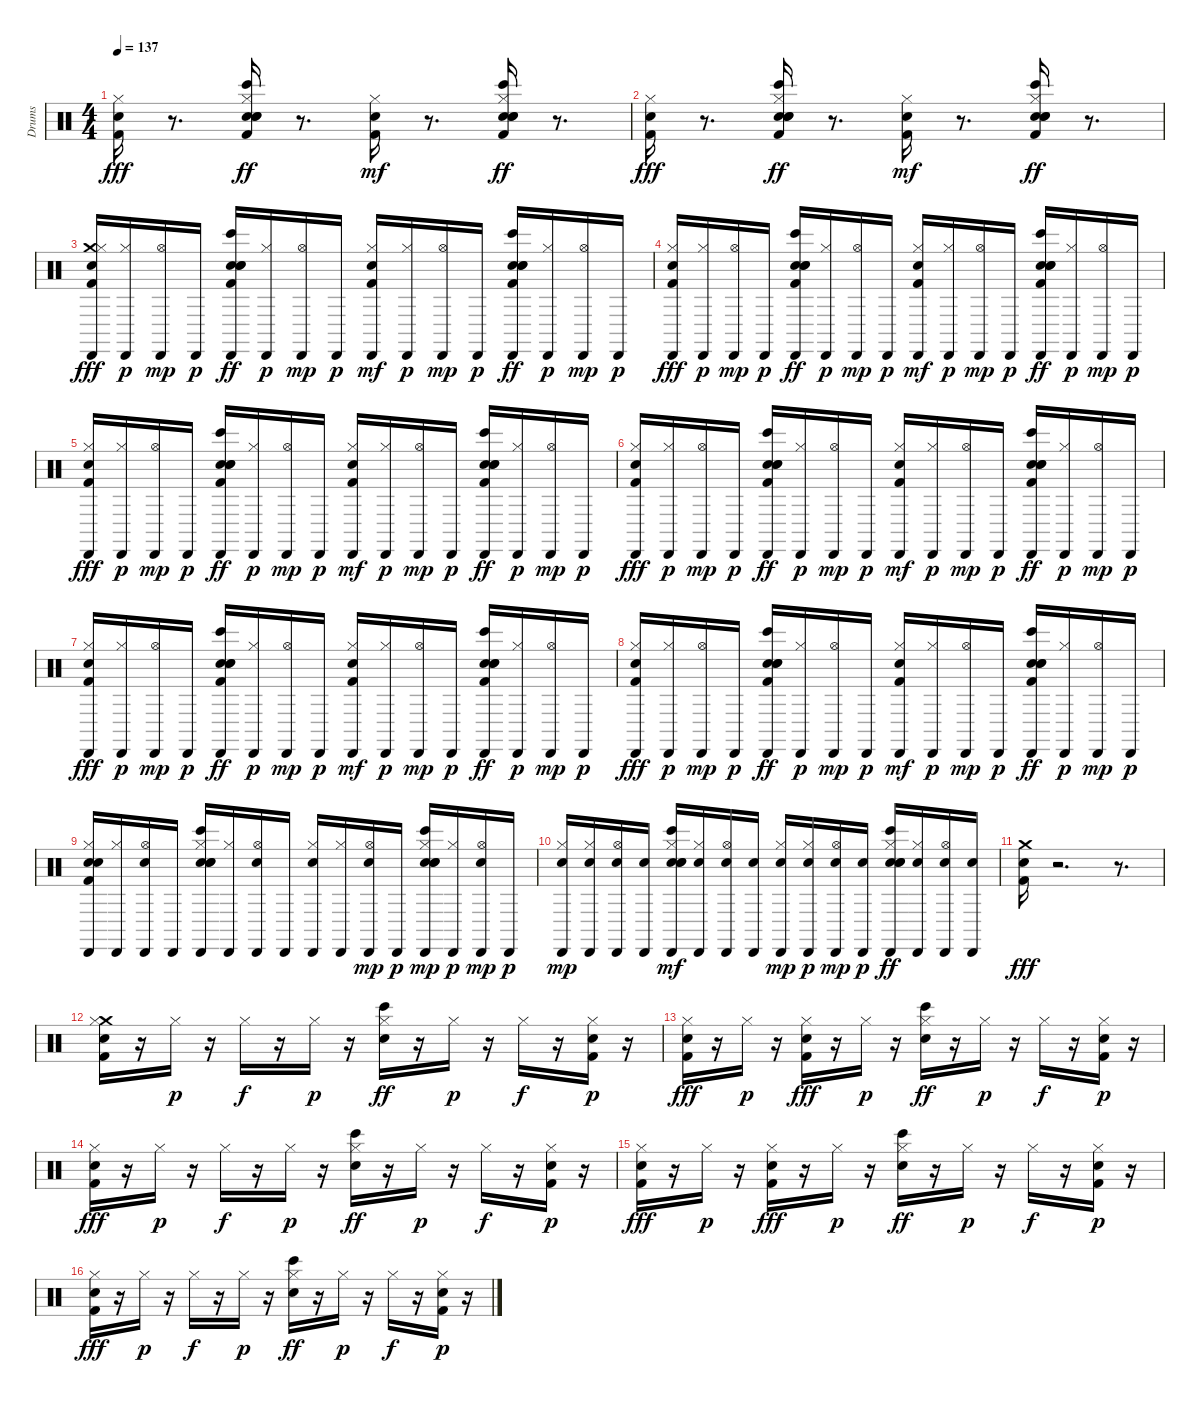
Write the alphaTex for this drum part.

\track ("Drums" "Drums") {instrument percussion}
\staff {score}
\articulation defaults
\ts (4 4)
\tempo 137
\clef neutral
\ks c
("Kick (hit) 2" "Snare (hit)" "Hi-Hat (closed)").16{dy fff} r.8{d} ("Snare (hit)" "Kick (hit) 2" "Bongo High (hit)" "Snare (hit) 2" "Hand Clap (hit)" "Hi-Hat (closed)").16{dy ff} r.8{d} ("Snare (hit)" "Kick (hit) 2" "Hi-Hat (closed)").16{dy mf} r.8{d} ("Snare (hit)" "Kick (hit) 2" "Bongo High (hit)" "Snare (hit) 2" "Hand Clap (hit)" "Hi-Hat (closed)").16{dy ff} r.8{d} |
("Kick (hit) 2" "Snare (hit)" "Hi-Hat (closed)").16{dy fff} r.8{d} ("Snare (hit)" "Kick (hit) 2" "Bongo High (hit)" "Snare (hit) 2" "Hand Clap (hit)" "Hi-Hat (closed)").16{dy ff} r.8{d} ("Snare (hit)" "Kick (hit) 2" "Hi-Hat (closed)").16{dy mf} r.8{d} ("Snare (hit)" "Kick (hit) 2" "Bongo High (hit)" "Snare (hit) 2" "Hand Clap (hit)" "Hi-Hat (closed)").16{dy ff} r.8{d} |
("Crash medium (hit)" "Cabasa (hit)" "Kick (hit) 2" "Snare (hit)" "Hi-Hat (closed)").16{dy fff} ("Cabasa (hit)" "Hi-Hat (closed)").16{dy p} ("Cabasa (hit)" "Hi-Hat (open)").16{dy mp} "Cabasa (hit)".16{dy p} ("Cabasa (hit)" "Snare (hit)" "Kick (hit) 2" "Bongo High (hit)" "Snare (hit) 2" "Hand Clap (hit)").16{dy ff} ("Cabasa (hit)" "Hi-Hat (closed)").16{dy p} ("Cabasa (hit)" "Hi-Hat (open)").16{dy mp} "Cabasa (hit)".16{dy p} ("Cabasa (hit)" "Snare (hit)" "Kick (hit) 2" "Hi-Hat (closed)").16{dy mf} ("Cabasa (hit)" "Hi-Hat (closed)").16{dy p} ("Cabasa (hit)" "Hi-Hat (open)").16{dy mp} "Cabasa (hit)".16{dy p} ("Cabasa (hit)" "Snare (hit)" "Kick (hit) 2" "Bongo High (hit)" "Snare (hit) 2" "Hand Clap (hit)").16{dy ff} ("Cabasa (hit)" "Hi-Hat (closed)").16{dy p} ("Cabasa (hit)" "Hi-Hat (open)").16{dy mp} "Cabasa (hit)".16{dy p} |
("Cabasa (hit)" "Kick (hit) 2" "Snare (hit)" "Hi-Hat (closed)").16{dy fff} ("Cabasa (hit)" "Hi-Hat (closed)").16{dy p} ("Cabasa (hit)" "Hi-Hat (open)").16{dy mp} "Cabasa (hit)".16{dy p} ("Cabasa (hit)" "Snare (hit)" "Kick (hit) 2" "Bongo High (hit)" "Snare (hit) 2" "Hand Clap (hit)").16{dy ff} ("Cabasa (hit)" "Hi-Hat (closed)").16{dy p} ("Cabasa (hit)" "Hi-Hat (open)").16{dy mp} "Cabasa (hit)".16{dy p} ("Cabasa (hit)" "Snare (hit)" "Kick (hit) 2" "Hi-Hat (closed)").16{dy mf} ("Cabasa (hit)" "Hi-Hat (closed)").16{dy p} ("Cabasa (hit)" "Hi-Hat (open)").16{dy mp} "Cabasa (hit)".16{dy p} ("Cabasa (hit)" "Snare (hit)" "Kick (hit) 2" "Bongo High (hit)" "Snare (hit) 2" "Hand Clap (hit)").16{dy ff} ("Cabasa (hit)" "Hi-Hat (closed)").16{dy p} ("Cabasa (hit)" "Hi-Hat (open)").16{dy mp} "Cabasa (hit)".16{dy p} |
("Cabasa (hit)" "Kick (hit) 2" "Snare (hit)" "Hi-Hat (closed)").16{dy fff} ("Cabasa (hit)" "Hi-Hat (closed)").16{dy p} ("Cabasa (hit)" "Hi-Hat (open)").16{dy mp} "Cabasa (hit)".16{dy p} ("Cabasa (hit)" "Snare (hit)" "Kick (hit) 2" "Bongo High (hit)" "Snare (hit) 2" "Hand Clap (hit)").16{dy ff} ("Cabasa (hit)" "Hi-Hat (closed)").16{dy p} ("Cabasa (hit)" "Hi-Hat (open)").16{dy mp} "Cabasa (hit)".16{dy p} ("Cabasa (hit)" "Snare (hit)" "Kick (hit) 2" "Hi-Hat (closed)").16{dy mf} ("Cabasa (hit)" "Hi-Hat (closed)").16{dy p} ("Cabasa (hit)" "Hi-Hat (open)").16{dy mp} "Cabasa (hit)".16{dy p} ("Cabasa (hit)" "Snare (hit)" "Kick (hit) 2" "Bongo High (hit)" "Snare (hit) 2" "Hand Clap (hit)").16{dy ff} ("Cabasa (hit)" "Hi-Hat (closed)").16{dy p} ("Cabasa (hit)" "Hi-Hat (open)").16{dy mp} "Cabasa (hit)".16{dy p} |
("Cabasa (hit)" "Kick (hit) 2" "Snare (hit)" "Hi-Hat (closed)").16{dy fff} ("Cabasa (hit)" "Hi-Hat (closed)").16{dy p} ("Cabasa (hit)" "Hi-Hat (open)").16{dy mp} "Cabasa (hit)".16{dy p} ("Cabasa (hit)" "Snare (hit)" "Kick (hit) 2" "Bongo High (hit)" "Snare (hit) 2" "Hand Clap (hit)").16{dy ff} ("Cabasa (hit)" "Hi-Hat (closed)").16{dy p} ("Cabasa (hit)" "Hi-Hat (open)").16{dy mp} "Cabasa (hit)".16{dy p} ("Cabasa (hit)" "Snare (hit)" "Kick (hit) 2" "Hi-Hat (closed)").16{dy mf} ("Cabasa (hit)" "Hi-Hat (closed)").16{dy p} ("Cabasa (hit)" "Hi-Hat (open)").16{dy mp} "Cabasa (hit)".16{dy p} ("Cabasa (hit)" "Snare (hit)" "Kick (hit) 2" "Bongo High (hit)" "Snare (hit) 2" "Hand Clap (hit)").16{dy ff} ("Cabasa (hit)" "Hi-Hat (closed)").16{dy p} ("Cabasa (hit)" "Hi-Hat (open)").16{dy mp} "Cabasa (hit)".16{dy p} |
("Cabasa (hit)" "Kick (hit) 2" "Snare (hit)" "Hi-Hat (closed)").16{dy fff} ("Cabasa (hit)" "Hi-Hat (closed)").16{dy p} ("Cabasa (hit)" "Hi-Hat (open)").16{dy mp} "Cabasa (hit)".16{dy p} ("Cabasa (hit)" "Snare (hit)" "Kick (hit) 2" "Bongo High (hit)" "Snare (hit) 2" "Hand Clap (hit)").16{dy ff} ("Cabasa (hit)" "Hi-Hat (closed)").16{dy p} ("Cabasa (hit)" "Hi-Hat (open)").16{dy mp} "Cabasa (hit)".16{dy p} ("Cabasa (hit)" "Snare (hit)" "Kick (hit) 2" "Hi-Hat (closed)").16{dy mf} ("Cabasa (hit)" "Hi-Hat (closed)").16{dy p} ("Cabasa (hit)" "Hi-Hat (open)").16{dy mp} "Cabasa (hit)".16{dy p} ("Cabasa (hit)" "Snare (hit)" "Kick (hit) 2" "Bongo High (hit)" "Snare (hit) 2" "Hand Clap (hit)").16{dy ff} ("Cabasa (hit)" "Hi-Hat (closed)").16{dy p} ("Cabasa (hit)" "Hi-Hat (open)").16{dy mp} "Cabasa (hit)".16{dy p} |
("Cabasa (hit)" "Kick (hit) 2" "Snare (hit)" "Hi-Hat (closed)").16{dy fff} ("Cabasa (hit)" "Hi-Hat (closed)").16{dy p} ("Cabasa (hit)" "Hi-Hat (open)").16{dy mp} "Cabasa (hit)".16{dy p} ("Cabasa (hit)" "Snare (hit)" "Kick (hit) 2" "Bongo High (hit)" "Snare (hit) 2" "Hand Clap (hit)").16{dy ff} ("Cabasa (hit)" "Hi-Hat (closed)").16{dy p} ("Cabasa (hit)" "Hi-Hat (open)").16{dy mp} "Cabasa (hit)".16{dy p} ("Cabasa (hit)" "Snare (hit)" "Kick (hit) 2" "Hi-Hat (closed)").16{dy mf} ("Cabasa (hit)" "Hi-Hat (closed)").16{dy p} ("Cabasa (hit)" "Hi-Hat (open)").16{dy mp} "Cabasa (hit)".16{dy p} ("Cabasa (hit)" "Snare (hit)" "Kick (hit) 2" "Bongo High (hit)" "Snare (hit) 2" "Hand Clap (hit)").16{dy ff} ("Cabasa (hit)" "Hi-Hat (closed)").16{dy p} ("Cabasa (hit)" "Hi-Hat (open)").16{dy mp} "Cabasa (hit)".16{dy p} |
("Cabasa (hit)" "Kick (hit) 2" "Snare (hit)" "Hi-Hat (closed)" "Electric Snare (hit)").16 ("Cabasa (hit)" "Hi-Hat (closed)").16 ("Cabasa (hit)" "Hi-Hat (open)" "Electric Snare (hit)").16 "Cabasa (hit)".16 ("Cabasa (hit)" "Bongo High (hit)" "Snare (hit) 2" "Hand Clap (hit)" "Hi-Hat (closed)" "Electric Snare (hit)").16 ("Cabasa (hit)" "Hi-Hat (closed)").16 ("Cabasa (hit)" "Hi-Hat (open)" "Electric Snare (hit)").16 "Cabasa (hit)".16 ("Cabasa (hit)" "Hi-Hat (closed)" "Electric Snare (hit)").16 ("Cabasa (hit)" "Hi-Hat (closed)").16 ("Cabasa (hit)" "Hi-Hat (open)" "Electric Snare (hit)").16{dy mp} "Cabasa (hit)".16{dy p} ("Cabasa (hit)" "Bongo High (hit)" "Snare (hit) 2" "Hand Clap (hit)" "Hi-Hat (closed)" "Electric Snare (hit)").16{dy mp} ("Cabasa (hit)" "Hi-Hat (closed)").16{dy p} ("Cabasa (hit)" "Hi-Hat (open)" "Electric Snare (hit)").16{dy mp} "Cabasa (hit)".16{dy p} |
("Cabasa (hit)" "Hi-Hat (closed)" "Electric Snare (hit)").16{dy mp} ("Cabasa (hit)" "Hi-Hat (closed)" "Electric Snare (hit)").16 ("Cabasa (hit)" "Hi-Hat (open)" "Electric Snare (hit)").16 ("Cabasa (hit)" "Electric Snare (hit)").16 ("Cabasa (hit)" "Bongo High (hit)" "Snare (hit) 2" "Hand Clap (hit)" "Hi-Hat (closed)" "Electric Snare (hit)").16{dy mf} ("Cabasa (hit)" "Hi-Hat (closed)" "Electric Snare (hit)").16 ("Cabasa (hit)" "Hi-Hat (open)" "Electric Snare (hit)").16 ("Cabasa (hit)" "Electric Snare (hit)").16 ("Cabasa (hit)" "Hi-Hat (closed)" "Electric Snare (hit)").16{dy mp} ("Cabasa (hit)" "Hi-Hat (closed)" "Electric Snare (hit)").16{dy p} ("Cabasa (hit)" "Hi-Hat (open)" "Electric Snare (hit)").16{dy mp} ("Cabasa (hit)" "Electric Snare (hit)").16{dy p} ("Cabasa (hit)" "Bongo High (hit)" "Snare (hit) 2" "Hand Clap (hit)" "Hi-Hat (closed)" "Electric Snare (hit)").16{dy ff} ("Cabasa (hit)" "Hi-Hat (closed)" "Electric Snare (hit)").16 ("Cabasa (hit)" "Hi-Hat (open)" "Electric Snare (hit)").16 ("Cabasa (hit)" "Electric Snare (hit)").16 |
("Crash medium (hit)" "Kick (hit) 2" "Snare (hit)").16{dy fff} r.2{d} r.8{d} |
("Crash medium (hit)" "Kick (hit) 2" "Snare (hit)" "Hi-Hat (closed)").16 r.16 "Hi-Hat (closed)".16{dy p} r.16 "Hi-Hat (closed)".16{dy f} r.16 "Hi-Hat (closed)".16{dy p} r.16 ("Snare (hit) 2" "Bongo High (hit)" "Hi-Hat (closed)").16{dy ff} r.16 "Hi-Hat (closed)".16{dy p} r.16 "Hi-Hat (closed)".16{dy f} r.16 ("Kick (hit) 2" "Snare (hit)" "Hi-Hat (closed)").16{dy p} r.16 |
("Kick (hit) 2" "Snare (hit)" "Hi-Hat (closed)").16{dy fff} r.16 "Hi-Hat (closed)".16{dy p} r.16 ("Kick (hit) 2" "Snare (hit)" "Hi-Hat (closed)").16{dy fff} r.16 "Hi-Hat (closed)".16{dy p} r.16 ("Snare (hit) 2" "Bongo High (hit)" "Hi-Hat (closed)").16{dy ff} r.16 "Hi-Hat (closed)".16{dy p} r.16 "Hi-Hat (closed)".16{dy f} r.16 ("Kick (hit) 2" "Snare (hit)" "Hi-Hat (closed)").16{dy p} r.16 |
("Kick (hit) 2" "Snare (hit)" "Hi-Hat (closed)").16{dy fff} r.16 "Hi-Hat (closed)".16{dy p} r.16 "Hi-Hat (closed)".16{dy f} r.16 "Hi-Hat (closed)".16{dy p} r.16 ("Snare (hit) 2" "Bongo High (hit)" "Hi-Hat (closed)").16{dy ff} r.16 "Hi-Hat (closed)".16{dy p} r.16 "Hi-Hat (closed)".16{dy f} r.16 ("Kick (hit) 2" "Snare (hit)" "Hi-Hat (closed)").16{dy p} r.16 |
("Kick (hit) 2" "Snare (hit)" "Hi-Hat (closed)").16{dy fff} r.16 "Hi-Hat (closed)".16{dy p} r.16 ("Kick (hit) 2" "Snare (hit)" "Hi-Hat (closed)").16{dy fff} r.16 "Hi-Hat (closed)".16{dy p} r.16 ("Snare (hit) 2" "Bongo High (hit)" "Hi-Hat (closed)").16{dy ff} r.16 "Hi-Hat (closed)".16{dy p} r.16 "Hi-Hat (closed)".16{dy f} r.16 ("Kick (hit) 2" "Snare (hit)" "Hi-Hat (closed)").16{dy p} r.16 |
("Kick (hit) 2" "Snare (hit)" "Hi-Hat (closed)").16{dy fff} r.16 "Hi-Hat (closed)".16{dy p} r.16 "Hi-Hat (closed)".16{dy f} r.16 "Hi-Hat (closed)".16{dy p} r.16 ("Snare (hit) 2" "Bongo High (hit)" "Hi-Hat (closed)").16{dy ff} r.16 "Hi-Hat (closed)".16{dy p} r.16 "Hi-Hat (closed)".16{dy f} r.16 ("Kick (hit) 2" "Snare (hit)" "Hi-Hat (closed)").16{dy p} r.16
